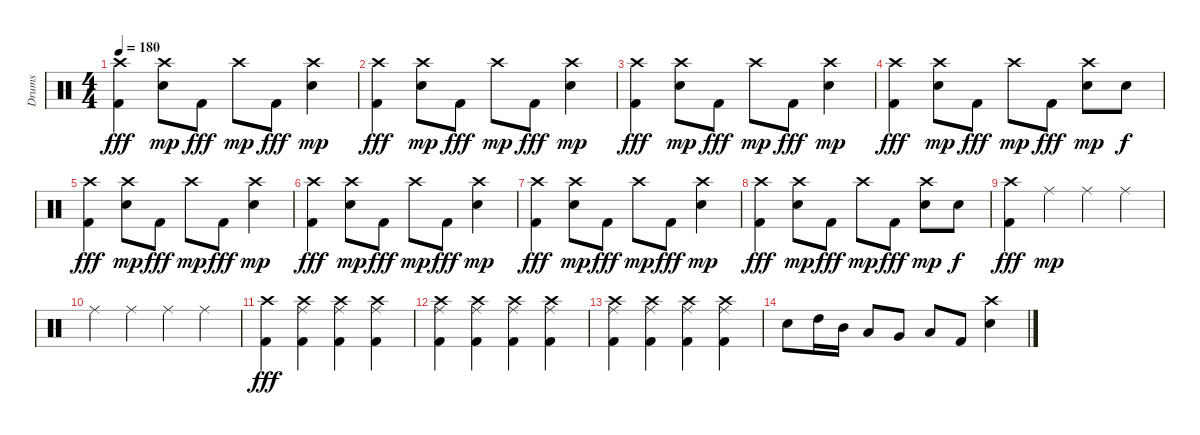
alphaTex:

\track ("Drums" "Drums") {instrument percussion}
\staff {score}
\articulation defaults
\ts (4 4)
\tempo 180
\clef neutral
\ks c
("Crash high (hit)" "Kick (hit) 2").4{dy fff} ("Crash high (hit)" "Electric Snare (hit)").8{dy mp} "Kick (hit) 2".8{dy fff} "Crash high (hit)".8{dy mp} "Kick (hit) 2".8{dy fff} ("Crash high (hit)" "Electric Snare (hit)").4{dy mp} |
("Crash high (hit)" "Kick (hit) 2").4{dy fff} ("Crash high (hit)" "Electric Snare (hit)").8{dy mp} "Kick (hit) 2".8{dy fff} "Crash high (hit)".8{dy mp} "Kick (hit) 2".8{dy fff} ("Crash high (hit)" "Electric Snare (hit)").4{dy mp} |
("Crash high (hit)" "Kick (hit) 2").4{dy fff} ("Crash high (hit)" "Electric Snare (hit)").8{dy mp} "Kick (hit) 2".8{dy fff} "Crash high (hit)".8{dy mp} "Kick (hit) 2".8{dy fff} ("Crash high (hit)" "Electric Snare (hit)").4{dy mp} |
("Crash high (hit)" "Kick (hit) 2").4{dy fff} ("Crash high (hit)" "Electric Snare (hit)").8{dy mp} "Kick (hit) 2".8{dy fff} "Crash high (hit)".8{dy mp} "Kick (hit) 2".8{dy fff} ("Crash high (hit)" "Electric Snare (hit)").8{dy mp} "Electric Snare (hit)".8{dy f} |
("Crash high (hit)" "Kick (hit) 2").4{dy fff} ("Crash high (hit)" "Electric Snare (hit)").8{dy mp} "Kick (hit) 2".8{dy fff} "Crash high (hit)".8{dy mp} "Kick (hit) 2".8{dy fff} ("Crash high (hit)" "Electric Snare (hit)").4{dy mp} |
("Crash high (hit)" "Kick (hit) 2").4{dy fff} ("Crash high (hit)" "Electric Snare (hit)").8{dy mp} "Kick (hit) 2".8{dy fff} "Crash high (hit)".8{dy mp} "Kick (hit) 2".8{dy fff} ("Crash high (hit)" "Electric Snare (hit)").4{dy mp} |
("Crash high (hit)" "Kick (hit) 2").4{dy fff} ("Crash high (hit)" "Electric Snare (hit)").8{dy mp} "Kick (hit) 2".8{dy fff} "Crash high (hit)".8{dy mp} "Kick (hit) 2".8{dy fff} ("Crash high (hit)" "Electric Snare (hit)").4{dy mp} |
("Crash high (hit)" "Kick (hit) 2").4{dy fff} ("Crash high (hit)" "Electric Snare (hit)").8{dy mp} "Kick (hit) 2".8{dy fff} "Crash high (hit)".8{dy mp} "Kick (hit) 2".8{dy fff} ("Crash high (hit)" "Electric Snare (hit)").8{dy mp} "Electric Snare (hit)".8{dy f} |
("Crash high (hit)" "Kick (hit) 2").4{dy fff} "Ride (middle)".4{dy mp} "Ride (middle)".4 "Ride (middle)".4 |
"Ride (middle)".4 "Ride (middle)".4 "Ride (middle)".4 "Ride (middle)".4 |
("Crash high (hit)" "Kick (hit) 2").4{dy fff} ("Crash high (hit)" "Ride (middle)" "Kick (hit) 2").4 ("Crash high (hit)" "Ride (middle)" "Kick (hit) 2").4 ("Crash high (hit)" "Ride (middle)" "Kick (hit) 2").4 |
("Crash high (hit)" "Ride (middle)" "Kick (hit) 2").4 ("Crash high (hit)" "Ride (middle)" "Kick (hit) 2").4 ("Crash high (hit)" "Ride (middle)" "Kick (hit) 2").4 ("Crash high (hit)" "Ride (middle)" "Kick (hit) 2").4 |
("Crash high (hit)" "Ride (middle)" "Kick (hit) 2").4 ("Crash high (hit)" "Ride (middle)" "Kick (hit) 2").4 ("Crash high (hit)" "Ride (middle)" "Kick (hit) 2").4 ("Crash high (hit)" "Ride (middle)" "Kick (hit) 2").4 |
"Electric Snare (hit)".8 "High Tom (hit)".16 "Mid Tom (hit)".16 "Low Tom (hit)".8 "Very Low Tom (hit)".8 "Low Floor Tom (hit)".8 "Kick (hit) 2".8 ("Crash high (hit)" "Electric Snare (hit)").4
